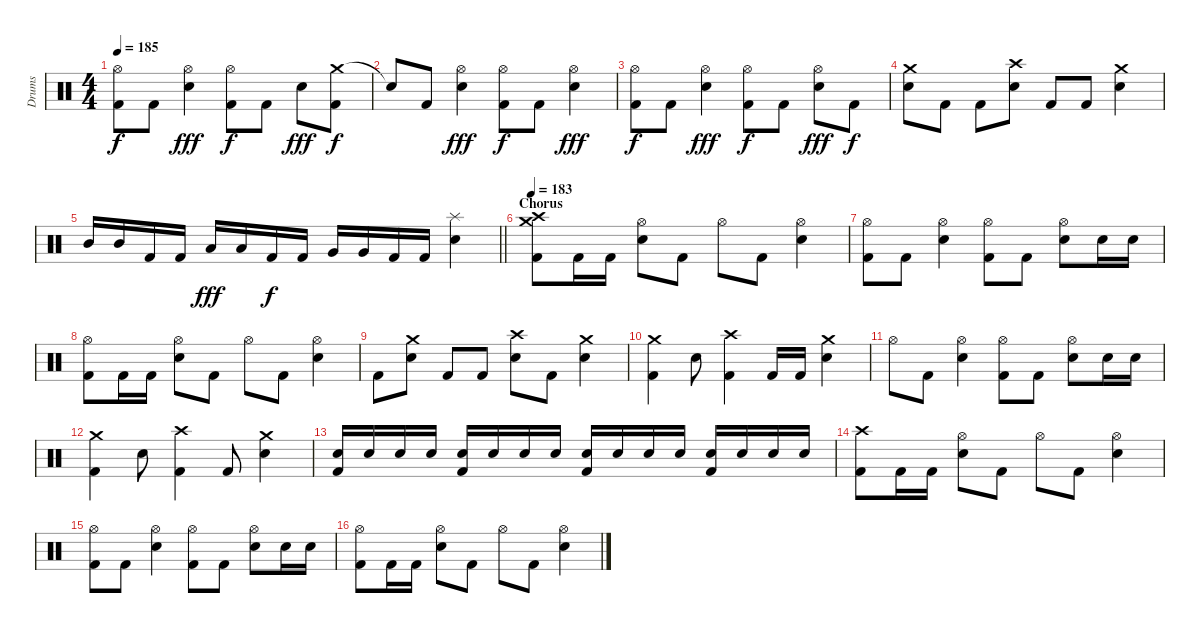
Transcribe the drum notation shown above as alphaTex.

\track ("Drums" "Drums") {instrument percussion}
\staff {score}
\articulation defaults
\ts (4 4)
\tempo 185
\clef neutral
\ks c
("Hi-Hat (open)" "Kick (hit) 2").8{dy f} "Kick (hit) 2".8 ("Hi-Hat (open)" "Electric Snare (hit)").4{dy fff} ("Hi-Hat (open)" "Kick (hit) 2").8{dy f} "Kick (hit) 2".8 "Electric Snare (hit)".8{dy fff} ("Crash medium (hit)" "Kick (hit) 2").8{dy f} |
"Snare (hit)"{t}.8 "Kick (hit) 2".8 ("Hi-Hat (open)" "Electric Snare (hit)").4{dy fff} ("Hi-Hat (open)" "Kick (hit) 2").8{dy f} "Kick (hit) 2".8 ("Hi-Hat (open)" "Electric Snare (hit)").4{dy fff} |
("Hi-Hat (open)" "Kick (hit) 2").8{dy f} "Kick (hit) 2".8 ("Hi-Hat (open)" "Electric Snare (hit)").4{dy fff} ("Hi-Hat (open)" "Kick (hit) 2").8{dy f} "Kick (hit) 2".8 ("Hi-Hat (open)" "Electric Snare (hit)").8{dy fff} "Kick (hit) 2".8{dy f} |
("Crash medium (hit)" "Electric Snare (hit)").8 "Kick (hit) 2".8 "Kick (hit) 2".8 ("Crash high (hit)" "Electric Snare (hit)").8 "Kick (hit) 2".8 "Kick (hit) 2".8 ("Crash medium (hit)" "Electric Snare (hit)").4 |
\barLineRight lightlight "Mid Tom (hit)".16 "Mid Tom (hit)".16 "Kick (hit) 2".16 "Kick (hit) 2".16 "Low Tom (hit)".16{dy fff} "Low Tom (hit)".16 "Kick (hit) 2".16{dy f} "Kick (hit) 2".16 "Very Low Tom (hit)".16 "Very Low Tom (hit)".16 "Kick (hit) 2".16 "Kick (hit) 2".16
("Splash (hit)" "Electric Snare (hit)").4 |
\section ("" "Chorus")
\tempo 183
("Crash medium (hit)" "Crash high (hit)" "Kick (hit) 2").8 "Kick (hit) 2".16 "Kick (hit) 2".16 ("Hi-Hat (open)" "Electric Snare (hit)").8 "Kick (hit) 2".8 "Hi-Hat (open)".8 "Kick (hit) 2".8 ("Hi-Hat (open)" "Electric Snare (hit)").4 |
("Hi-Hat (open)" "Kick (hit) 2").8 "Kick (hit) 2".8 ("Hi-Hat (open)" "Electric Snare (hit)").4 ("Hi-Hat (open)" "Kick (hit) 2").8 "Kick (hit) 2".8 ("Hi-Hat (open)" "Electric Snare (hit)").8 "Electric Snare (hit)".16 "Electric Snare (hit)".16 |
("Hi-Hat (open)" "Kick (hit) 2").8 "Kick (hit) 2".16 "Kick (hit) 2".16 ("Hi-Hat (open)" "Electric Snare (hit)").8 "Kick (hit) 2".8 "Hi-Hat (open)".8 "Kick (hit) 2".8 ("Hi-Hat (open)" "Electric Snare (hit)").4 |
"Kick (hit) 2".8 ("Crash medium (hit)" "Electric Snare (hit)").8 "Kick (hit) 2".8 "Kick (hit) 2".8 ("Crash high (hit)" "Electric Snare (hit)").8 "Kick (hit) 2".8 ("Crash medium (hit)" "Electric Snare (hit)").4 |
("Crash medium (hit)" "Kick (hit) 2").4 "Electric Snare (hit)".8 ("Crash high (hit)" "Kick (hit) 2").4 "Kick (hit) 2".16 "Kick (hit) 2".16 ("Crash medium (hit)" "Electric Snare (hit)").4 |
"Hi-Hat (open)".8 "Kick (hit) 2".8 ("Hi-Hat (open)" "Electric Snare (hit)").4 ("Hi-Hat (open)" "Kick (hit) 2").8 "Kick (hit) 2".8 ("Hi-Hat (open)" "Electric Snare (hit)").8 "Electric Snare (hit)".16 "Electric Snare (hit)".16 |
("Crash medium (hit)" "Kick (hit) 2").4 "Electric Snare (hit)".8 ("Crash high (hit)" "Kick (hit) 2").4 "Kick (hit) 2".8 ("Crash medium (hit)" "Electric Snare (hit)").4 |
("Electric Snare (hit)" "Kick (hit) 2").16 "Electric Snare (hit)".16 "Electric Snare (hit)".16 "Electric Snare (hit)".16 ("Electric Snare (hit)" "Kick (hit) 2").16 "Electric Snare (hit)".16 "Electric Snare (hit)".16 "Electric Snare (hit)".16 ("Electric Snare (hit)" "Kick (hit) 2").16 "Electric Snare (hit)".16 "Electric Snare (hit)".16 "Electric Snare (hit)".16 ("Electric Snare (hit)" "Kick (hit) 2").16 "Electric Snare (hit)".16 "Electric Snare (hit)".16 "Electric Snare (hit)".16 |
("Crash high (hit)" "Kick (hit) 2").8 "Kick (hit) 2".16 "Kick (hit) 2".16 ("Hi-Hat (open)" "Electric Snare (hit)").8 "Kick (hit) 2".8 "Hi-Hat (open)".8 "Kick (hit) 2".8 ("Hi-Hat (open)" "Electric Snare (hit)").4 |
("Hi-Hat (open)" "Kick (hit) 2").8 "Kick (hit) 2".8 ("Hi-Hat (open)" "Electric Snare (hit)").4 ("Hi-Hat (open)" "Kick (hit) 2").8 "Kick (hit) 2".8 ("Hi-Hat (open)" "Electric Snare (hit)").8 "Electric Snare (hit)".16 "Electric Snare (hit)".16 |
("Hi-Hat (open)" "Kick (hit) 2").8 "Kick (hit) 2".16 "Kick (hit) 2".16 ("Hi-Hat (open)" "Electric Snare (hit)").8 "Kick (hit) 2".8 "Hi-Hat (open)".8 "Kick (hit) 2".8 ("Hi-Hat (open)" "Electric Snare (hit)").4
